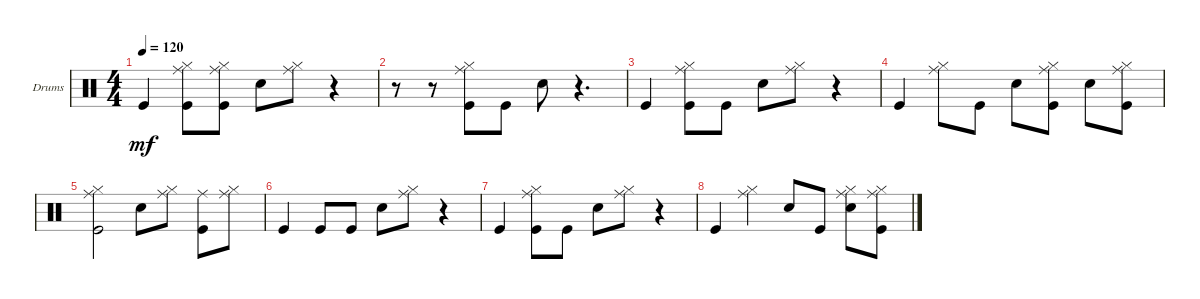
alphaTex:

\defaultSystemsLayout 4
\bracketExtendMode groupsimilarinstruments
\firstSystemTrackNameOrientation horizontal
\otherSystemsTrackNameOrientation horizontal
\track ("Drumkit" "Drums") {instrument percussion}
\staff {score}
\articulation defaults
\ts (4 4)
\tempo 120
\clef neutral
\scale
0.333333
\ks c "Kick (hit)".4{dy mf}
("Kick (hit)" "Ride (middle)" "Hi-Hat (closed)").8 ("Kick (hit)" "Ride (middle)" "Hi-Hat (closed)").8 "Snare (hit) 2".8 ("Hi-Hat (closed)" "Ride (middle)").8 r.4 |
\scale
0.333333 r.8 r.8 ("Ride (middle)" "Hi-Hat (closed)" "Kick (hit)").8 "Kick (hit)".8 "Snare (hit) 2".8 r.4{d} |
\scale
0.333333 "Kick (hit)".4 ("Kick (hit)" "Ride (middle)" "Hi-Hat (closed)").8 "Kick (hit)".8 "Snare (hit) 2".8 ("Ride (middle)" "Hi-Hat (closed)").8 r.4 |
\scale
0.333333 "Kick (hit)".4 ("Ride (middle)" "Hi-Hat (closed)").8 "Kick (hit)".8 "Snare (hit) 2".8 ("Ride (middle)" "Hi-Hat (closed)" "Kick (hit)").8 "Snare (hit) 2".8 ("Ride (middle)" "Hi-Hat (closed)" "Kick (hit)").8 |
\scale
0.333333 ("Kick (hit)" "Ride (middle)" "Hi-Hat (closed)").2 "Snare (hit) 2".8 ("Hi-Hat (closed)" "Ride (middle)").8 ("Kick (hit)" "Ride (middle)").8 ("Hi-Hat (closed)" "Ride (middle)").8 |
\scale
0.333333 "Kick (hit)".4 "Kick (hit)".8 "Kick (hit)".8 "Snare (hit) 2".8 ("Hi-Hat (closed)" "Ride (middle)").8 r.4 |
\scale
0.333333 "Kick (hit)".4 ("Kick (hit)" "Ride (middle)" "Hi-Hat (closed)").8 "Kick (hit)".8 "Snare (hit) 2".8 ("Hi-Hat (closed)" "Ride (middle)").8 r.4 |
\scale
0.333333 "Kick (hit)".4 ("Ride (middle)" "Hi-Hat (closed)").4 "Snare (hit) 2".8 "Kick (hit)".8 ("Hi-Hat (closed)" "Ride (middle)" "Snare (hit) 2").8 ("Ride (middle)" "Hi-Hat (closed)" "Kick (hit)").8 |
\scale
0.333333 |
\scale
0.333333 |
\scale
0.333333 |
\scale
0.333333 |
\scale
0.333333 |
\scale
0.333333 |
\scale
0.333333 |
\scale
0.333333
